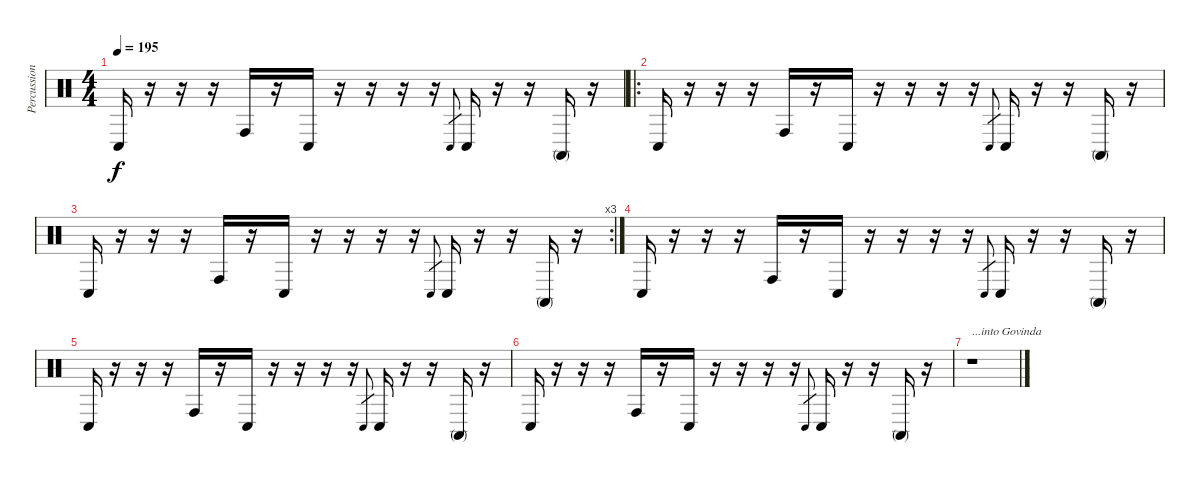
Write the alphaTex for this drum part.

\track ("Percussion" "Percussion") {instrument percussion}
\staff {score}
\articulation defaults
\ts (4 4)
\tempo 195
\clef neutral
\ks c "Conga low (hit)".16{dy f}
r.16 r.16 r.16 "Conga high (hit)".16 r.16 "Conga low (hit)".16 r.16 r.16 r.16 r.16 "Conga low (hit)".8{gr} "Conga low (hit)".16 r.16 r.16 "Conga high (mute)".16 r.16 |
\ro "Conga low (hit)".16
r.16 r.16 r.16 "Conga high (hit)".16 r.16 "Conga low (hit)".16 r.16 r.16 r.16 r.16 "Conga low (hit)".8{gr} "Conga low (hit)".16 r.16 r.16 "Conga high (mute)".16 r.16 |
\rc 3 "Conga low (hit)".16
r.16 r.16 r.16 "Conga high (hit)".16 r.16 "Conga low (hit)".16 r.16 r.16 r.16 r.16 "Conga low (hit)".8{gr} "Conga low (hit)".16 r.16 r.16 "Conga high (mute)".16 r.16 |
"Conga low (hit)".16 r.16 r.16 r.16 "Conga high (hit)".16 r.16 "Conga low (hit)".16 r.16 r.16 r.16 r.16 "Conga low (hit)".8{gr} "Conga low (hit)".16 r.16 r.16 "Conga high (mute)".16 r.16 |
"Conga low (hit)".16 r.16 r.16 r.16 "Conga high (hit)".16 r.16 "Conga low (hit)".16 r.16 r.16 r.16 r.16 "Conga low (hit)".8{gr} "Conga low (hit)".16 r.16 r.16 "Conga high (mute)".16 r.16 |
"Conga low (hit)".16 r.16 r.16 r.16 "Conga high (hit)".16 r.16 "Conga low (hit)".16 r.16 r.16 r.16 r.16 "Conga low (hit)".8{gr} "Conga low (hit)".16 r.16 r.16 "Conga high (mute)".16 r.16 |
r.1{txt "...into Govinda"}
